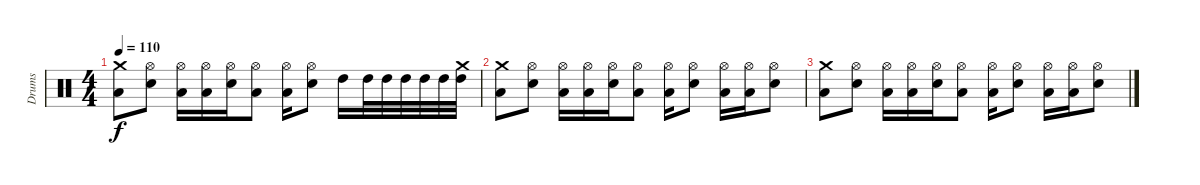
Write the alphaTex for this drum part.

\track ("Drums" "Drums") {instrument percussion}
\staff {score}
\articulation defaults
\ts (4 4)
\tempo 110
\clef neutral
\ks c
("Low Tom (hit)" "Crash medium (hit)").8{dy f} ("Snare (hit) 2" "Hi-Hat (open)").8 ("Low Tom (hit)" "Hi-Hat (open)").16 ("Low Tom (hit)" "Hi-Hat (open)").16 ("Snare (hit) 2" "Hi-Hat (open)").16 ("Low Tom (hit)" "Hi-Hat (open)").8 ("Low Tom (hit)" "Hi-Hat (open)").16 ("Snare (hit) 2" "Hi-Hat (open)").8 "High Tom (hit)".16 "High Tom (hit)".32 "High Tom (hit)".32 "High Tom (hit)".32 "High Tom (hit)".32 "High Tom (hit)".32 ("High Tom (hit)" "Crash medium (hit)").32 |
("Low Tom (hit)" "Crash medium (hit)").8 ("Snare (hit) 2" "Hi-Hat (open)").8 ("Low Tom (hit)" "Hi-Hat (open)").16 ("Low Tom (hit)" "Hi-Hat (open)").16 ("Snare (hit) 2" "Hi-Hat (open)").16 ("Low Tom (hit)" "Hi-Hat (open)").8 ("Low Tom (hit)" "Hi-Hat (open)").16 ("Snare (hit) 2" "Hi-Hat (open)").8 ("Low Tom (hit)" "Hi-Hat (open)").16 ("Low Tom (hit)" "Hi-Hat (open)").16 ("Snare (hit) 2" "Hi-Hat (open)").8 |
("Low Tom (hit)" "Crash medium (hit)").8 ("Snare (hit) 2" "Hi-Hat (open)").8 ("Low Tom (hit)" "Hi-Hat (open)").16 ("Low Tom (hit)" "Hi-Hat (open)").16 ("Snare (hit) 2" "Hi-Hat (open)").16 ("Low Tom (hit)" "Hi-Hat (open)").8 ("Low Tom (hit)" "Hi-Hat (open)").16 ("Snare (hit) 2" "Hi-Hat (open)").8 ("Low Tom (hit)" "Hi-Hat (open)").16 ("Low Tom (hit)" "Hi-Hat (open)").16 ("Snare (hit) 2" "Hi-Hat (open)").8
